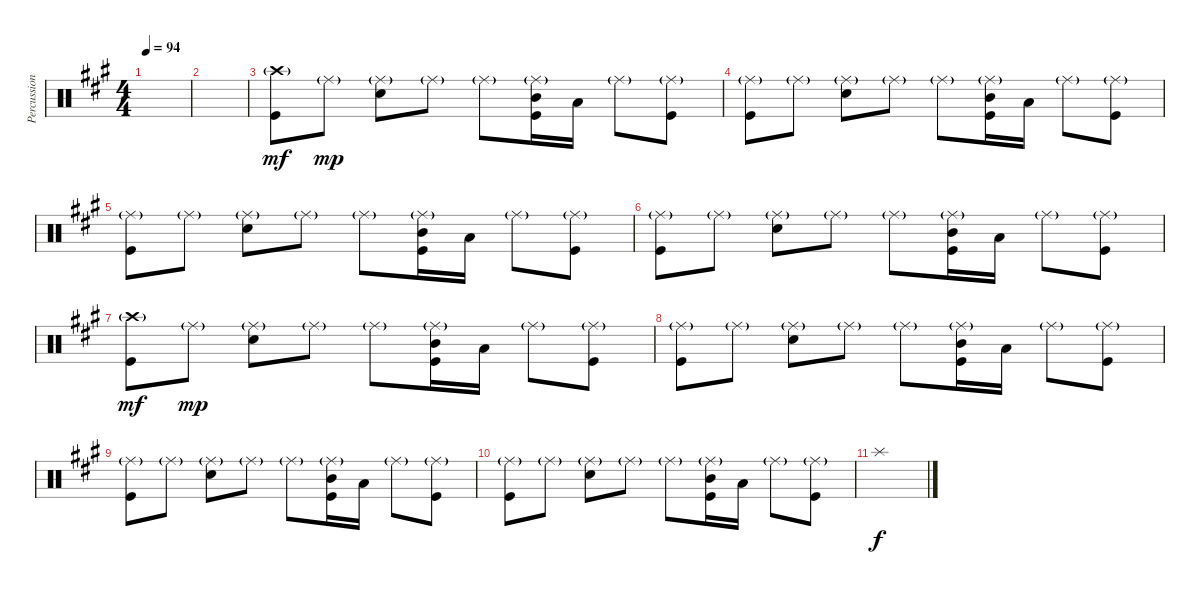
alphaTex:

\track ("Percussion" "Percussion") {instrument percussion}
\staff {score}
\articulation defaults
\ts (4 4)
\tempo 94
\clef neutral
\ks a
|
|
("Crash high (hit)"{g} "Kick (hit)").8{dy mf} "Ride (middle)"{g}.8{dy mp} ("Ride (middle)"{g} "Electric Snare (hit)").8 "Ride (middle)"{g}.8 "Ride (middle)"{g}.8 ("Ride (middle)"{g} "Mid Tom (hit)" "Kick (hit)").16 "Low Tom (hit)".16 "Ride (middle)"{g}.8 ("Ride (middle)"{g} "Kick (hit)").8 |
("Ride (middle)"{g} "Kick (hit)").8 "Ride (middle)"{g}.8 ("Ride (middle)"{g} "Electric Snare (hit)").8 "Ride (middle)"{g}.8 "Ride (middle)"{g}.8 ("Ride (middle)"{g} "Mid Tom (hit)" "Kick (hit)").16 "Low Tom (hit)".16 "Ride (middle)"{g}.8 ("Ride (middle)"{g} "Kick (hit)").8 |
("Ride (middle)"{g} "Kick (hit)").8 "Ride (middle)"{g}.8 ("Ride (middle)"{g} "Electric Snare (hit)").8 "Ride (middle)"{g}.8 "Ride (middle)"{g}.8 ("Ride (middle)"{g} "Mid Tom (hit)" "Kick (hit)").16 "Low Tom (hit)".16 "Ride (middle)"{g}.8 ("Ride (middle)"{g} "Kick (hit)").8 |
("Ride (middle)"{g} "Kick (hit)").8 "Ride (middle)"{g}.8 ("Ride (middle)"{g} "Electric Snare (hit)").8 "Ride (middle)"{g}.8 "Ride (middle)"{g}.8 ("Ride (middle)"{g} "Mid Tom (hit)" "Kick (hit)").16 "Low Tom (hit)".16 "Ride (middle)"{g}.8 ("Ride (middle)"{g} "Kick (hit)").8 |
("Crash high (hit)"{g} "Kick (hit)").8{dy mf} "Ride (middle)"{g}.8{dy mp} ("Ride (middle)"{g} "Electric Snare (hit)").8 "Ride (middle)"{g}.8 "Ride (middle)"{g}.8 ("Ride (middle)"{g} "Mid Tom (hit)" "Kick (hit)").16 "Low Tom (hit)".16 "Ride (middle)"{g}.8 ("Ride (middle)"{g} "Kick (hit)").8 |
("Ride (middle)"{g} "Kick (hit)").8 "Ride (middle)"{g}.8 ("Ride (middle)"{g} "Electric Snare (hit)").8 "Ride (middle)"{g}.8 "Ride (middle)"{g}.8 ("Ride (middle)"{g} "Mid Tom (hit)" "Kick (hit)").16 "Low Tom (hit)".16 "Ride (middle)"{g}.8 ("Ride (middle)"{g} "Kick (hit)").8 |
("Ride (middle)"{g} "Kick (hit)").8 "Ride (middle)"{g}.8 ("Ride (middle)"{g} "Electric Snare (hit)").8 "Ride (middle)"{g}.8 "Ride (middle)"{g}.8 ("Ride (middle)"{g} "Mid Tom (hit)" "Kick (hit)").16 "Low Tom (hit)".16 "Ride (middle)"{g}.8 ("Ride (middle)"{g} "Kick (hit)").8 |
("Ride (middle)"{g} "Kick (hit)").8 "Ride (middle)"{g}.8 ("Ride (middle)"{g} "Electric Snare (hit)").8 "Ride (middle)"{g}.8 "Ride (middle)"{g}.8 ("Ride (middle)"{g} "Mid Tom (hit)" "Kick (hit)").16 "Low Tom (hit)".16 "Ride (middle)"{g}.8 ("Ride (middle)"{g} "Kick (hit)").8 |
"Splash (hit)".1{dy f}
